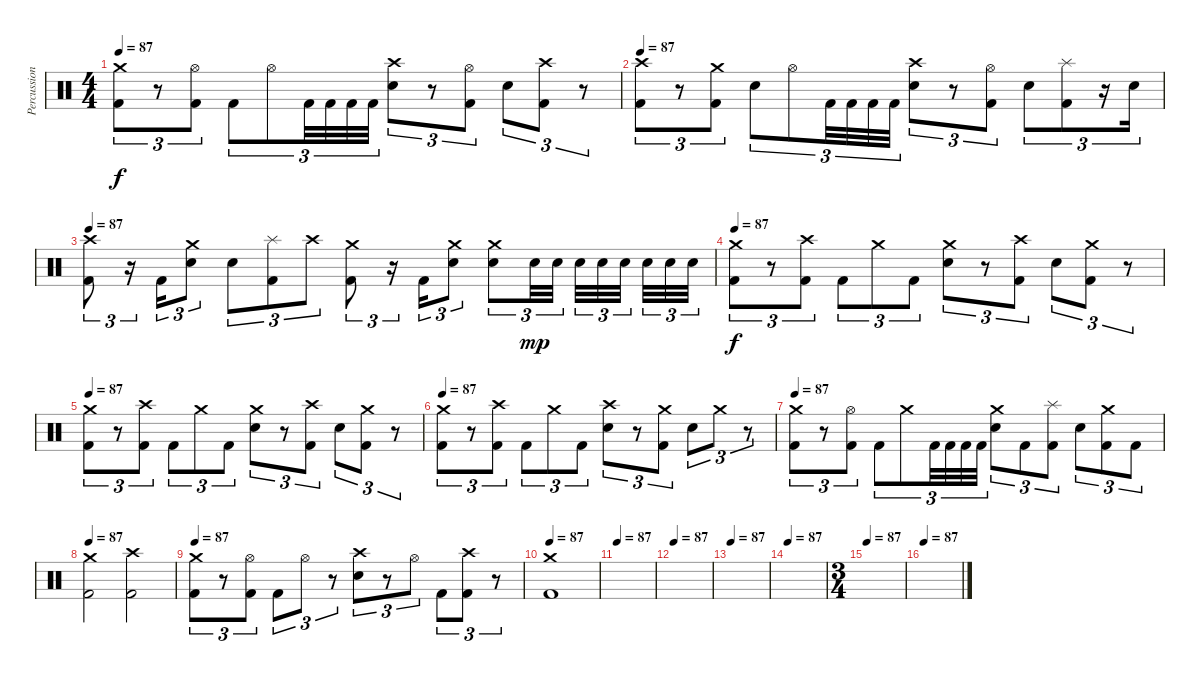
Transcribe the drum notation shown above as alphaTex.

\track ("Percussion" "Percussion") {instrument percussion}
\staff {score}
\articulation defaults
\ts (4 4)
\tempo 87
\clef neutral
\ks c
("Crash medium (hit)" "Kick (hit) 2").8{tu (3 2) dy f} r.8{tu (3 2)} ("Hi-Hat (open)" "Kick (hit) 2").8{tu (3 2)} "Kick (hit) 2".8{tu (3 2)} "Hi-Hat (open)".8{tu (3 2)} "Kick (hit) 2".32{tu (3 2)} "Kick (hit) 2".32{tu (3 2)} "Kick (hit) 2".32{tu (3 2)} "Kick (hit) 2".32{tu (3 2)} ("Crash high (hit)" "Electric Snare (hit)").8{tu (3 2)} r.8{tu (3 2)} ("Hi-Hat (open)" "Kick (hit) 2").8{tu (3 2)} "Electric Snare (hit)".8{tu (3 2)} ("Crash high (hit)" "Kick (hit) 2").8{tu (3 2)} r.8{tu (3 2)} |
\tempo 87
("Crash high (hit)" "Kick (hit) 2").8{tu (3 2)} r.8{tu (3 2)} ("Crash medium (hit)" "Kick (hit) 2").8{tu (3 2)} "Electric Snare (hit)".8{tu (3 2)} "Hi-Hat (open)".8{tu (3 2)} "Kick (hit) 2".32{tu (3 2)} "Kick (hit) 2".32{tu (3 2)} "Kick (hit) 2".32{tu (3 2)} "Kick (hit) 2".32{tu (3 2)} ("Crash high (hit)" "Electric Snare (hit)").8{tu (3 2)} r.8{tu (3 2)} ("Hi-Hat (open)" "Kick (hit) 2").8{tu (3 2)} "Electric Snare (hit)".8{tu (3 2)} ("Splash (hit)" "Kick (hit) 2").8{tu (3 2)} r.16{tu (3 2)} "Electric Snare (hit)".16{tu (3 2)} |
\tempo 87
("Crash high (hit)" "Kick (hit) 2").8{tu (3 2)} r.16{tu (3 2)} "Kick (hit) 2".16{tu (3 2)} ("Crash medium (hit)" "Electric Snare (hit)").8{tu (3 2)} "Electric Snare (hit)".8{tu (3 2)} ("Splash (hit)" "Kick (hit) 2").8{tu (3 2)} "Crash high (hit)".8{tu (3 2)} ("Crash medium (hit)" "Kick (hit) 2").8{tu (3 2)} r.16{tu (3 2)} "Kick (hit) 2".16{tu (3 2)} ("Crash medium (hit)" "Electric Snare (hit)").8{tu (3 2)} ("Crash medium (hit)" "Electric Snare (hit)").8{tu (3 2)} "Electric Snare (hit)".32{tu (3 2) dy mp} "Electric Snare (hit)".32{tu (3 2)} "Electric Snare (hit)".32{tu (3 2)} "Electric Snare (hit)".32{tu (3 2)} "Electric Snare (hit)".32{tu (3 2)} "Electric Snare (hit)".32{tu (3 2)} "Electric Snare (hit)".32{tu (3 2)} "Electric Snare (hit)".32{tu (3 2)} |
\tempo 87
("Crash medium (hit)" "Kick (hit) 2").8{tu (3 2) dy f} r.8{tu (3 2)} ("Crash high (hit)" "Kick (hit) 2").8{tu (3 2)} "Kick (hit) 2".8{tu (3 2)} "Crash medium (hit)".8{tu (3 2)} "Kick (hit) 2".8{tu (3 2)} ("Crash medium (hit)" "Electric Snare (hit)").8{tu (3 2)} r.8{tu (3 2)} ("Crash high (hit)" "Kick (hit) 2").8{tu (3 2)} "Electric Snare (hit)".8{tu (3 2)} ("Crash medium (hit)" "Kick (hit) 2").8{tu (3 2)} r.8{tu (3 2)} |
\tempo 87
("Crash medium (hit)" "Kick (hit) 2").8{tu (3 2)} r.8{tu (3 2)} ("Crash high (hit)" "Kick (hit) 2").8{tu (3 2)} "Kick (hit) 2".8{tu (3 2)} "Crash medium (hit)".8{tu (3 2)} "Kick (hit) 2".8{tu (3 2)} ("Crash medium (hit)" "Electric Snare (hit)").8{tu (3 2)} r.8{tu (3 2)} ("Crash high (hit)" "Kick (hit) 2").8{tu (3 2)} "Electric Snare (hit)".8{tu (3 2)} ("Crash medium (hit)" "Kick (hit) 2").8{tu (3 2)} r.8{tu (3 2)} |
\tempo 87
("Crash medium (hit)" "Kick (hit) 2").8{tu (3 2)} r.8{tu (3 2)} ("Crash high (hit)" "Kick (hit) 2").8{tu (3 2)} "Kick (hit) 2".8{tu (3 2)} "Crash medium (hit)".8{tu (3 2)} "Kick (hit) 2".8{tu (3 2)} ("Crash high (hit)" "Electric Snare (hit)").8{tu (3 2)} r.8{tu (3 2)} ("Crash medium (hit)" "Kick (hit) 2").8{tu (3 2)} "Electric Snare (hit)".8{tu (3 2)} "Crash medium (hit)".8{tu (3 2)} r.8{tu (3 2)} |
\tempo 87
("Crash medium (hit)" "Kick (hit) 2").8{tu (3 2)} r.8{tu (3 2)} ("Hi-Hat (open)" "Kick (hit) 2").8{tu (3 2)} "Kick (hit) 2".8{tu (3 2)} "Crash medium (hit)".8{tu (3 2)} "Kick (hit) 2".32{tu (3 2)} "Kick (hit) 2".32{tu (3 2)} "Kick (hit) 2".32{tu (3 2)} "Kick (hit) 2".32{tu (3 2)} ("Crash medium (hit)" "Electric Snare (hit)").8{tu (3 2)} "Kick (hit) 2".8{tu (3 2)} ("Splash (hit)" "Kick (hit) 2").8{tu (3 2)} "Electric Snare (hit)".8{tu (3 2)} ("Crash medium (hit)" "Kick (hit) 2").8{tu (3 2)} "Kick (hit) 2".8{tu (3 2)} |
\tempo 87
("Crash medium (hit)" "Kick (hit) 2").2 ("Crash high (hit)" "Kick (hit) 2").2 |
\tempo 87
("Crash medium (hit)" "Kick (hit) 2").8{tu (3 2)} r.8{tu (3 2)} ("Hi-Hat (open)" "Kick (hit) 2").8{tu (3 2)} "Kick (hit) 2".8{tu (3 2)} "Hi-Hat (open)".8{tu (3 2)} r.8{tu (3 2)} ("Crash high (hit)" "Electric Snare (hit)").8{tu (3 2)} r.8{tu (3 2)} "Hi-Hat (open)".8{tu (3 2)} "Kick (hit) 2".8{tu (3 2)} ("Crash high (hit)" "Kick (hit) 2").8{tu (3 2)} r.8{tu (3 2)} |
\tempo 87
("Crash medium (hit)" "Kick (hit) 2").1 |
\tempo 87
|
\tempo 87
|
\tempo 87
|
\tempo 90
\tempo 87
|
\ts (3 4)
\tempo 87
|
\tempo 87
